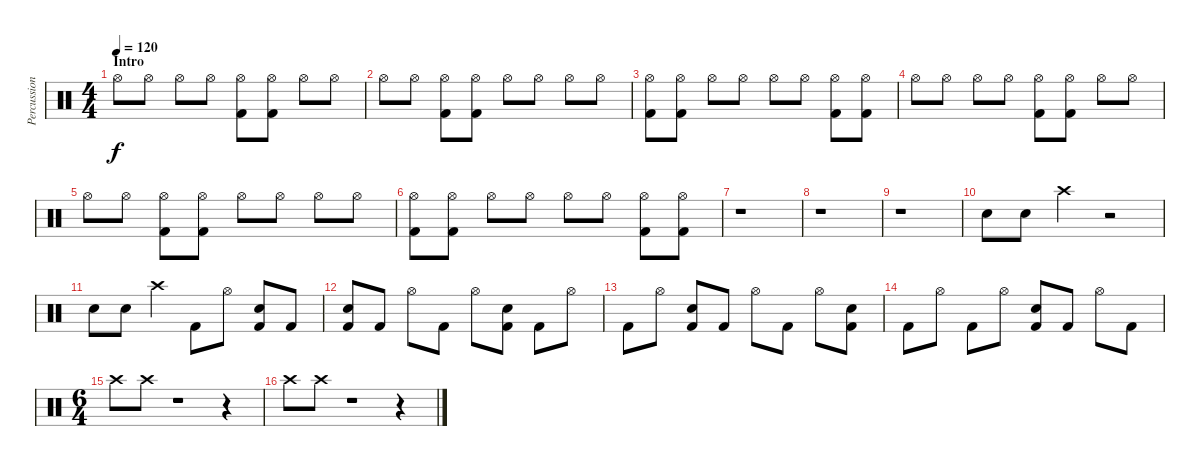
\track ("Percussion" "Percussion") {instrument percussion}
\staff {score}
\articulation defaults
\ts (4 4)
\section ("" "Intro")
\tempo 120
\clef neutral
\ks c "Hi-Hat (open)".8{dy f} "Hi-Hat (open)".8 "Hi-Hat (open)".8 "Hi-Hat (open)".8
("Hi-Hat (open)" "Kick (hit) 2").8 ("Hi-Hat (open)" "Kick (hit) 2").8 "Hi-Hat (open)".8 "Hi-Hat (open)".8 |
"Hi-Hat (open)".8 "Hi-Hat (open)".8 ("Hi-Hat (open)" "Kick (hit) 2").8 ("Hi-Hat (open)" "Kick (hit) 2").8 "Hi-Hat (open)".8 "Hi-Hat (open)".8 "Hi-Hat (open)".8 "Hi-Hat (open)".8 |
("Hi-Hat (open)" "Kick (hit) 2").8 ("Hi-Hat (open)" "Kick (hit) 2").8 "Hi-Hat (open)".8 "Hi-Hat (open)".8 "Hi-Hat (open)".8 "Hi-Hat (open)".8 ("Hi-Hat (open)" "Kick (hit) 2").8 ("Hi-Hat (open)" "Kick (hit) 2").8 |
"Hi-Hat (open)".8 "Hi-Hat (open)".8 "Hi-Hat (open)".8 "Hi-Hat (open)".8 ("Hi-Hat (open)" "Kick (hit) 2").8 ("Hi-Hat (open)" "Kick (hit) 2").8 "Hi-Hat (open)".8 "Hi-Hat (open)".8 |
"Hi-Hat (open)".8 "Hi-Hat (open)".8 ("Hi-Hat (open)" "Kick (hit) 2").8 ("Hi-Hat (open)" "Kick (hit) 2").8 "Hi-Hat (open)".8 "Hi-Hat (open)".8 "Hi-Hat (open)".8 "Hi-Hat (open)".8 |
("Hi-Hat (open)" "Kick (hit) 2").8 ("Hi-Hat (open)" "Kick (hit) 2").8 "Hi-Hat (open)".8 "Hi-Hat (open)".8 "Hi-Hat (open)".8 "Hi-Hat (open)".8 ("Hi-Hat (open)" "Kick (hit) 2").8 ("Hi-Hat (open)" "Kick (hit) 2").8 |
r.1 |
r.1 |
r.1 |
"Electric Snare (hit)".8 "Electric Snare (hit)".8 "Crash high (hit)".4 r.2 |
"Electric Snare (hit)".8 "Electric Snare (hit)".8 "Crash high (hit)".4 "Kick (hit) 2".8 "Hi-Hat (open)".8 ("Electric Snare (hit)" "Kick (hit) 2").8 "Kick (hit) 2".8 |
("Electric Snare (hit)" "Kick (hit) 2").8 "Kick (hit) 2".8 "Hi-Hat (open)".8 "Kick (hit) 2".8 "Hi-Hat (open)".8 ("Electric Snare (hit)" "Kick (hit) 2").8 "Kick (hit) 2".8 "Hi-Hat (open)".8 |
"Kick (hit) 2".8 "Hi-Hat (open)".8 ("Electric Snare (hit)" "Kick (hit) 2").8 "Kick (hit) 2".8 "Hi-Hat (open)".8 "Kick (hit) 2".8 "Hi-Hat (open)".8 ("Electric Snare (hit)" "Kick (hit) 2").8 |
"Kick (hit) 2".8 "Hi-Hat (open)".8 "Kick (hit) 2".8 "Hi-Hat (open)".8 ("Electric Snare (hit)" "Kick (hit) 2").8 "Kick (hit) 2".8 "Hi-Hat (open)".8 "Kick (hit) 2".8 |
\ts (6 4)
"Crash high (hit)".8 "Crash high (hit)".8 r.1 r.4 |
"Crash high (hit)".8 "Crash high (hit)".8 r.1 r.4
